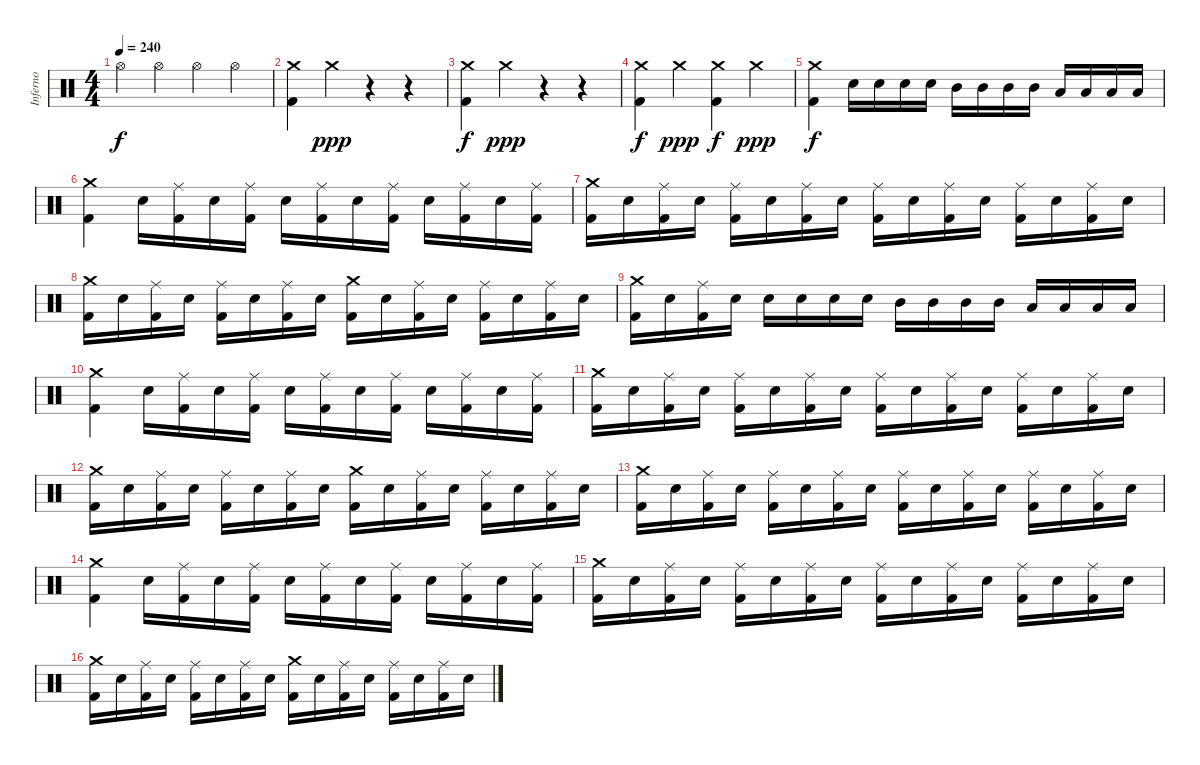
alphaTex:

\track ("Inferno" "Inferno") {instrument percussion}
\staff {score}
\articulation defaults
\ts (4 4)
\tempo 240
\clef neutral
\ks c "Hi-Hat (open)".4{dy f} "Hi-Hat (open)".4 "Hi-Hat (open)".4 "Hi-Hat (open)".4
|
("Crash medium (hit)" "Kick (hit) 2").4 "Crash medium (hit)".4{dy ppp} r.4 r.4 |
("Crash medium (hit)" "Kick (hit) 2").4{dy f} "Crash medium (hit)".4{dy ppp} r.4 r.4 |
("Crash medium (hit)" "Kick (hit) 2").4{dy f} "Crash medium (hit)".4{dy ppp} ("Crash medium (hit)" "Kick (hit) 2").4{dy f} "Crash medium (hit)".4{dy ppp} |
("Crash medium (hit)" "Kick (hit) 2").4{dy f} "Snare (hit) 2".16 "Snare (hit) 2".16 "Snare (hit) 2".16 "Snare (hit) 2".16 "Mid Tom (hit)".16 "Mid Tom (hit)".16 "Mid Tom (hit)".16 "Mid Tom (hit)".16 "Low Tom (hit)".16 "Low Tom (hit)".16 "Low Tom (hit)".16 "Low Tom (hit)".16 |
("Crash medium (hit)" "Kick (hit) 2").4 "Snare (hit) 2".16 ("Ride (middle)" "Kick (hit) 2").16 "Snare (hit) 2".16 ("Ride (middle)" "Kick (hit) 2").16 "Snare (hit) 2".16 ("Ride (middle)" "Kick (hit) 2").16 "Snare (hit) 2".16 ("Ride (middle)" "Kick (hit) 2").16 "Snare (hit) 2".16 ("Ride (middle)" "Kick (hit) 2").16 "Snare (hit) 2".16 ("Ride (middle)" "Kick (hit) 2").16 |
("Crash medium (hit)" "Kick (hit) 2").16 "Snare (hit) 2".16 ("Ride (middle)" "Kick (hit) 2").16 "Snare (hit) 2".16 ("Ride (middle)" "Kick (hit) 2").16 "Snare (hit) 2".16 ("Ride (middle)" "Kick (hit) 2").16 "Snare (hit) 2".16 ("Ride (middle)" "Kick (hit) 2").16 "Snare (hit) 2".16 ("Ride (middle)" "Kick (hit) 2").16 "Snare (hit) 2".16 ("Ride (middle)" "Kick (hit) 2").16 "Snare (hit) 2".16 ("Ride (middle)" "Kick (hit) 2").16 "Snare (hit) 2".16 |
("Crash medium (hit)" "Kick (hit) 2").16 "Snare (hit) 2".16 ("Ride (middle)" "Kick (hit) 2").16 "Snare (hit) 2".16 ("Ride (middle)" "Kick (hit) 2").16 "Snare (hit) 2".16 ("Ride (middle)" "Kick (hit) 2").16 "Snare (hit) 2".16 ("Crash medium (hit)" "Kick (hit) 2").16 "Snare (hit) 2".16 ("Ride (middle)" "Kick (hit) 2").16 "Snare (hit) 2".16 ("Ride (middle)" "Kick (hit) 2").16 "Snare (hit) 2".16 ("Ride (middle)" "Kick (hit) 2").16 "Snare (hit) 2".16 |
("Crash medium (hit)" "Kick (hit) 2").16 "Snare (hit) 2".16 ("Ride (middle)" "Kick (hit) 2").16 "Snare (hit) 2".16 "Snare (hit) 2".16 "Snare (hit) 2".16 "Snare (hit) 2".16 "Snare (hit) 2".16 "Mid Tom (hit)".16 "Mid Tom (hit)".16 "Mid Tom (hit)".16 "Mid Tom (hit)".16 "Low Tom (hit)".16 "Low Tom (hit)".16 "Low Tom (hit)".16 "Low Tom (hit)".16 |
("Crash medium (hit)" "Kick (hit) 2").4 "Snare (hit) 2".16 ("Ride (middle)" "Kick (hit) 2").16 "Snare (hit) 2".16 ("Ride (middle)" "Kick (hit) 2").16 "Snare (hit) 2".16 ("Ride (middle)" "Kick (hit) 2").16 "Snare (hit) 2".16 ("Ride (middle)" "Kick (hit) 2").16 "Snare (hit) 2".16 ("Ride (middle)" "Kick (hit) 2").16 "Snare (hit) 2".16 ("Ride (middle)" "Kick (hit) 2").16 |
("Crash medium (hit)" "Kick (hit) 2").16 "Snare (hit) 2".16 ("Ride (middle)" "Kick (hit) 2").16 "Snare (hit) 2".16 ("Ride (middle)" "Kick (hit) 2").16 "Snare (hit) 2".16 ("Ride (middle)" "Kick (hit) 2").16 "Snare (hit) 2".16 ("Ride (middle)" "Kick (hit) 2").16 "Snare (hit) 2".16 ("Ride (middle)" "Kick (hit) 2").16 "Snare (hit) 2".16 ("Ride (middle)" "Kick (hit) 2").16 "Snare (hit) 2".16 ("Ride (middle)" "Kick (hit) 2").16 "Snare (hit) 2".16 |
("Crash medium (hit)" "Kick (hit) 2").16 "Snare (hit) 2".16 ("Ride (middle)" "Kick (hit) 2").16 "Snare (hit) 2".16 ("Ride (middle)" "Kick (hit) 2").16 "Snare (hit) 2".16 ("Ride (middle)" "Kick (hit) 2").16 "Snare (hit) 2".16 ("Crash medium (hit)" "Kick (hit) 2").16 "Snare (hit) 2".16 ("Ride (middle)" "Kick (hit) 2").16 "Snare (hit) 2".16 ("Ride (middle)" "Kick (hit) 2").16 "Snare (hit) 2".16 ("Ride (middle)" "Kick (hit) 2").16 "Snare (hit) 2".16 |
("Crash medium (hit)" "Kick (hit) 2").16 "Snare (hit) 2".16 ("Ride (middle)" "Kick (hit) 2").16 "Snare (hit) 2".16 ("Ride (middle)" "Kick (hit) 2").16 "Snare (hit) 2".16 ("Ride (middle)" "Kick (hit) 2").16 "Snare (hit) 2".16 ("Ride (middle)" "Kick (hit) 2").16 "Snare (hit) 2".16 ("Ride (middle)" "Kick (hit) 2").16 "Snare (hit) 2".16 ("Ride (middle)" "Kick (hit) 2").16 "Snare (hit) 2".16 ("Ride (middle)" "Kick (hit) 2").16 "Snare (hit) 2".16 |
("Crash medium (hit)" "Kick (hit) 2").4 "Snare (hit) 2".16 ("Ride (middle)" "Kick (hit) 2").16 "Snare (hit) 2".16 ("Ride (middle)" "Kick (hit) 2").16 "Snare (hit) 2".16 ("Ride (middle)" "Kick (hit) 2").16 "Snare (hit) 2".16 ("Ride (middle)" "Kick (hit) 2").16 "Snare (hit) 2".16 ("Ride (middle)" "Kick (hit) 2").16 "Snare (hit) 2".16 ("Ride (middle)" "Kick (hit) 2").16 |
("Crash medium (hit)" "Kick (hit) 2").16 "Snare (hit) 2".16 ("Ride (middle)" "Kick (hit) 2").16 "Snare (hit) 2".16 ("Ride (middle)" "Kick (hit) 2").16 "Snare (hit) 2".16 ("Ride (middle)" "Kick (hit) 2").16 "Snare (hit) 2".16 ("Ride (middle)" "Kick (hit) 2").16 "Snare (hit) 2".16 ("Ride (middle)" "Kick (hit) 2").16 "Snare (hit) 2".16 ("Ride (middle)" "Kick (hit) 2").16 "Snare (hit) 2".16 ("Ride (middle)" "Kick (hit) 2").16 "Snare (hit) 2".16 |
("Crash medium (hit)" "Kick (hit) 2").16 "Snare (hit) 2".16 ("Ride (middle)" "Kick (hit) 2").16 "Snare (hit) 2".16 ("Ride (middle)" "Kick (hit) 2").16 "Snare (hit) 2".16 ("Ride (middle)" "Kick (hit) 2").16 "Snare (hit) 2".16 ("Crash medium (hit)" "Kick (hit) 2").16 "Snare (hit) 2".16 ("Ride (middle)" "Kick (hit) 2").16 "Snare (hit) 2".16 ("Ride (middle)" "Kick (hit) 2").16 "Snare (hit) 2".16 ("Ride (middle)" "Kick (hit) 2").16 "Snare (hit) 2".16
